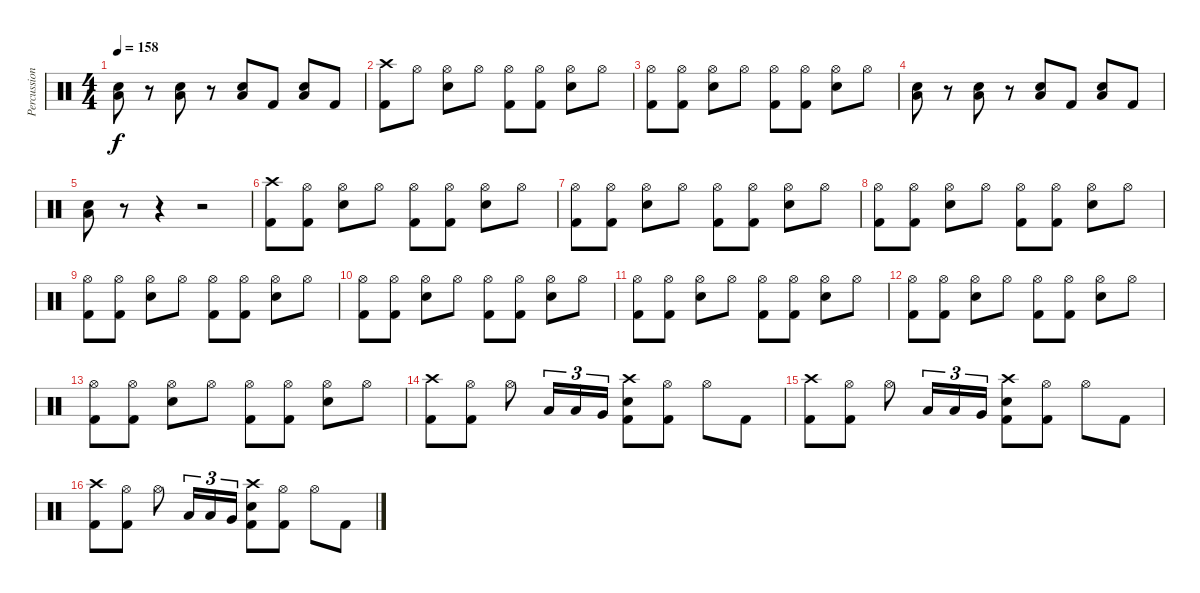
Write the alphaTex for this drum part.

\track ("Percussion" "Percussion") {instrument percussion}
\staff {score}
\articulation defaults
\ts (4 4)
\tempo 158
\clef neutral
\ks c
("Electric Snare (hit)" "Low Floor Tom (hit)").8{dy f} r.8 ("Electric Snare (hit)" "Low Floor Tom (hit)").8 r.8 ("Electric Snare (hit)" "Low Floor Tom (hit)").8 "Kick (hit) 2".8 ("Electric Snare (hit)" "Low Floor Tom (hit)").8 "Kick (hit) 2".8 |
("Crash high (hit)" "Kick (hit) 2").8 "Hi-Hat (open)".8 ("Hi-Hat (open)" "Electric Snare (hit)").8 "Hi-Hat (open)".8 ("Hi-Hat (open)" "Kick (hit) 2").8 ("Hi-Hat (open)" "Kick (hit) 2").8 ("Hi-Hat (open)" "Electric Snare (hit)").8 "Hi-Hat (open)".8 |
("Hi-Hat (open)" "Kick (hit) 2").8 ("Hi-Hat (open)" "Kick (hit) 2").8 ("Hi-Hat (open)" "Electric Snare (hit)").8 "Hi-Hat (open)".8 ("Hi-Hat (open)" "Kick (hit) 2").8 ("Hi-Hat (open)" "Kick (hit) 2").8 ("Hi-Hat (open)" "Electric Snare (hit)").8 "Hi-Hat (open)".8 |
("Electric Snare (hit)" "Low Floor Tom (hit)").8 r.8 ("Electric Snare (hit)" "Low Floor Tom (hit)").8 r.8 ("Electric Snare (hit)" "Low Floor Tom (hit)").8 "Kick (hit) 2".8 ("Electric Snare (hit)" "Low Floor Tom (hit)").8 "Kick (hit) 2".8 |
("Electric Snare (hit)" "Low Floor Tom (hit)").8 r.8 r.4 r.2 |
("Crash high (hit)" "Kick (hit) 2").8 ("Hi-Hat (open)" "Kick (hit) 2").8 ("Hi-Hat (open)" "Electric Snare (hit)").8 "Hi-Hat (open)".8 ("Hi-Hat (open)" "Kick (hit) 2").8 ("Hi-Hat (open)" "Kick (hit) 2").8 ("Hi-Hat (open)" "Electric Snare (hit)").8 "Hi-Hat (open)".8 |
("Hi-Hat (open)" "Kick (hit) 2").8 ("Hi-Hat (open)" "Kick (hit) 2").8 ("Hi-Hat (open)" "Electric Snare (hit)").8 "Hi-Hat (open)".8 ("Hi-Hat (open)" "Kick (hit) 2").8 ("Hi-Hat (open)" "Kick (hit) 2").8 ("Hi-Hat (open)" "Electric Snare (hit)").8 "Hi-Hat (open)".8 |
("Hi-Hat (open)" "Kick (hit) 2").8 ("Hi-Hat (open)" "Kick (hit) 2").8 ("Hi-Hat (open)" "Electric Snare (hit)").8 "Hi-Hat (open)".8 ("Hi-Hat (open)" "Kick (hit) 2").8 ("Hi-Hat (open)" "Kick (hit) 2").8 ("Hi-Hat (open)" "Electric Snare (hit)").8 "Hi-Hat (open)".8 |
("Hi-Hat (open)" "Kick (hit) 2").8 ("Hi-Hat (open)" "Kick (hit) 2").8 ("Hi-Hat (open)" "Electric Snare (hit)").8 "Hi-Hat (open)".8 ("Hi-Hat (open)" "Kick (hit) 2").8 ("Hi-Hat (open)" "Kick (hit) 2").8 ("Hi-Hat (open)" "Electric Snare (hit)").8 "Hi-Hat (open)".8 |
("Hi-Hat (open)" "Kick (hit) 2").8 ("Hi-Hat (open)" "Kick (hit) 2").8 ("Hi-Hat (open)" "Electric Snare (hit)").8 "Hi-Hat (open)".8 ("Hi-Hat (open)" "Kick (hit) 2").8 ("Hi-Hat (open)" "Kick (hit) 2").8 ("Hi-Hat (open)" "Electric Snare (hit)").8 "Hi-Hat (open)".8 |
("Hi-Hat (open)" "Kick (hit) 2").8 ("Hi-Hat (open)" "Kick (hit) 2").8 ("Hi-Hat (open)" "Electric Snare (hit)").8 "Hi-Hat (open)".8 ("Hi-Hat (open)" "Kick (hit) 2").8 ("Hi-Hat (open)" "Kick (hit) 2").8 ("Hi-Hat (open)" "Electric Snare (hit)").8 "Hi-Hat (open)".8 |
("Hi-Hat (open)" "Kick (hit) 2").8 ("Hi-Hat (open)" "Kick (hit) 2").8 ("Hi-Hat (open)" "Electric Snare (hit)").8 "Hi-Hat (open)".8 ("Hi-Hat (open)" "Kick (hit) 2").8 ("Hi-Hat (open)" "Kick (hit) 2").8 ("Hi-Hat (open)" "Electric Snare (hit)").8 "Hi-Hat (open)".8 |
("Hi-Hat (open)" "Kick (hit) 2").8 ("Hi-Hat (open)" "Kick (hit) 2").8 ("Hi-Hat (open)" "Electric Snare (hit)").8 "Hi-Hat (open)".8 ("Hi-Hat (open)" "Kick (hit) 2").8 ("Hi-Hat (open)" "Kick (hit) 2").8 ("Hi-Hat (open)" "Electric Snare (hit)").8 "Hi-Hat (open)".8 |
("Crash high (hit)" "Kick (hit) 2").8 ("Hi-Hat (open)" "Kick (hit) 2").8 "Hi-Hat (open)".8 "Low Tom (hit)".16{tu (3 2)} "Low Tom (hit)".16{tu (3 2)} "Very Low Tom (hit)".16{tu (3 2)} ("Crash high (hit)" "Electric Snare (hit)" "Kick (hit) 2").8 ("Hi-Hat (open)" "Kick (hit) 2").8 "Hi-Hat (open)".8 "Kick (hit) 2".8 |
("Crash high (hit)" "Kick (hit) 2").8 ("Hi-Hat (open)" "Kick (hit) 2").8 "Hi-Hat (open)".8 "Low Tom (hit)".16{tu (3 2)} "Low Tom (hit)".16{tu (3 2)} "Very Low Tom (hit)".16{tu (3 2)} ("Crash high (hit)" "Electric Snare (hit)" "Kick (hit) 2").8 ("Hi-Hat (open)" "Kick (hit) 2").8 "Hi-Hat (open)".8 "Kick (hit) 2".8 |
("Crash high (hit)" "Kick (hit) 2").8 ("Hi-Hat (open)" "Kick (hit) 2").8 "Hi-Hat (open)".8 "Low Tom (hit)".16{tu (3 2)} "Low Tom (hit)".16{tu (3 2)} "Very Low Tom (hit)".16{tu (3 2)} ("Crash high (hit)" "Electric Snare (hit)" "Kick (hit) 2").8 ("Hi-Hat (open)" "Kick (hit) 2").8 "Hi-Hat (open)".8 "Kick (hit) 2".8
